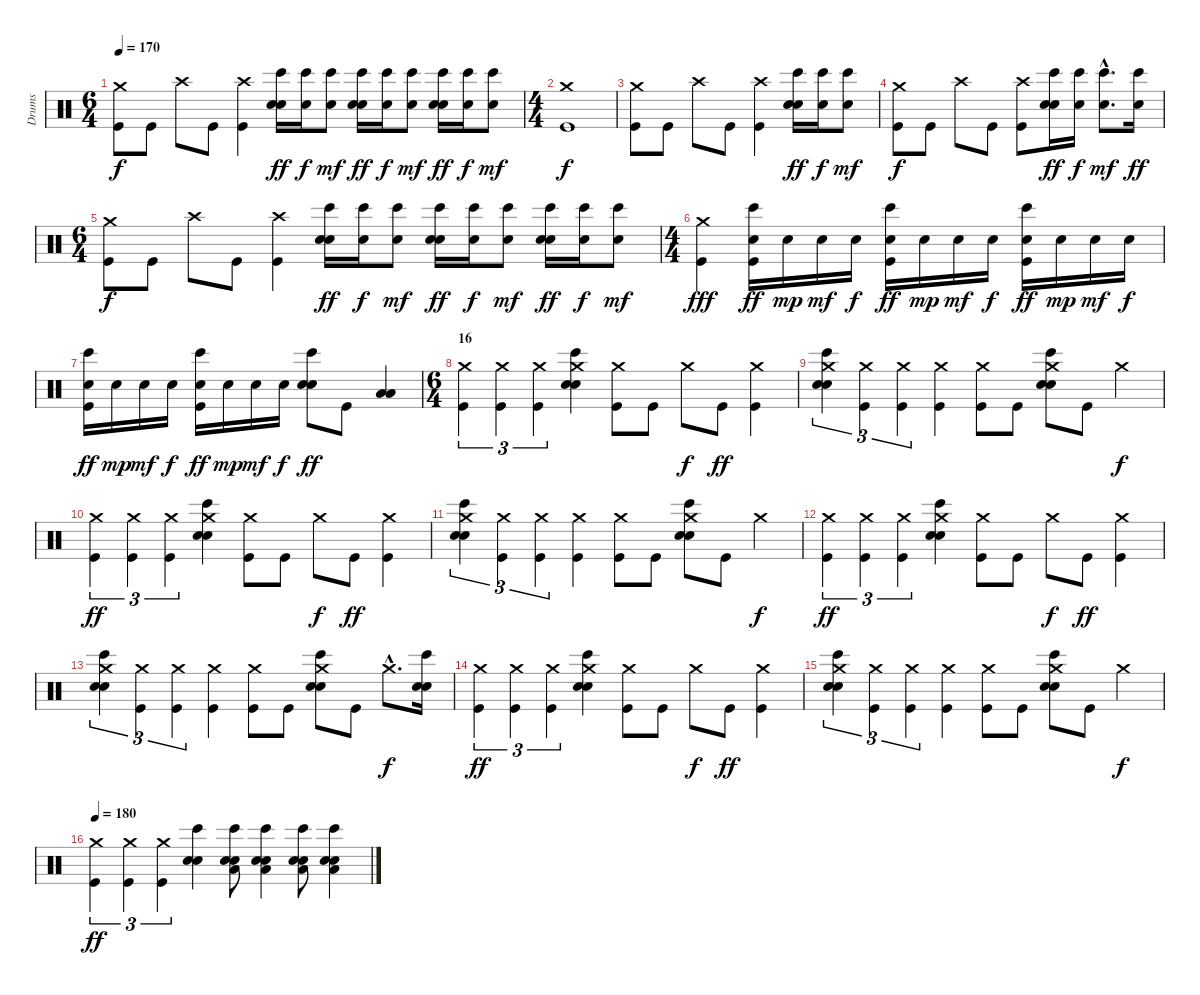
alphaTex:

\track ("Drums" "Drums") {instrument percussion}
\staff {score}
\articulation defaults
\ts (6 4)
\tempo 170
\clef neutral
\ks c
("Kick (hit)" "Crash medium (hit)").8{dy f} "Kick (hit)".8 "Crash high (hit)".8 "Kick (hit)".8 ("Kick (hit)" "Crash high (hit)").4 ("Electric Snare (hit)" "Electric Snare (hit)" "Bongo High (hit)").16{dy ff} ("Electric Snare (hit)" "Bongo High (hit)").16{dy f} ("Electric Snare (hit)" "Bongo High (hit)").8{dy mf} ("Electric Snare (hit)" "Electric Snare (hit)" "Bongo High (hit)").16{dy ff} ("Electric Snare (hit)" "Bongo High (hit)").16{dy f} ("Electric Snare (hit)" "Bongo High (hit)").8{dy mf} ("Electric Snare (hit)" "Electric Snare (hit)" "Bongo High (hit)").16{dy ff} ("Electric Snare (hit)" "Bongo High (hit)").16{dy f} ("Electric Snare (hit)" "Bongo High (hit)").8{dy mf} |
\ts (4 4)
("Kick (hit)" "Crash medium (hit)").1{dy f} |
("Kick (hit)" "Crash medium (hit)").8 "Kick (hit)".8 "Crash high (hit)".8 "Kick (hit)".8 ("Kick (hit)" "Crash high (hit)").4 ("Electric Snare (hit)" "Electric Snare (hit)" "Bongo High (hit)").16{dy ff} ("Electric Snare (hit)" "Bongo High (hit)").16{dy f} ("Electric Snare (hit)" "Bongo High (hit)").8{dy mf} |
("Kick (hit)" "Crash medium (hit)").8{dy f} "Kick (hit)".8 "Crash high (hit)".8 "Kick (hit)".8 ("Kick (hit)" "Crash high (hit)").8 ("Electric Snare (hit)" "Electric Snare (hit)" "Bongo High (hit)").16{dy ff} ("Electric Snare (hit)" "Bongo High (hit)").16{dy f} ("Electric Snare (hit)"{hac} "Bongo High (hit)"{hac}).8{d dy mf} ("Electric Snare (hit)" "Bongo High (hit)").16{dy ff} |
\ts (6 4)
("Kick (hit)" "Crash medium (hit)").8{dy f} "Kick (hit)".8 "Crash high (hit)".8 "Kick (hit)".8 ("Kick (hit)" "Crash high (hit)").4 ("Electric Snare (hit)" "Electric Snare (hit)" "Bongo High (hit)").16{dy ff} ("Electric Snare (hit)" "Bongo High (hit)").16{dy f} ("Electric Snare (hit)" "Bongo High (hit)").8{dy mf} ("Electric Snare (hit)" "Electric Snare (hit)" "Bongo High (hit)").16{dy ff} ("Electric Snare (hit)" "Bongo High (hit)").16{dy f} ("Electric Snare (hit)" "Bongo High (hit)").8{dy mf} ("Electric Snare (hit)" "Electric Snare (hit)" "Bongo High (hit)").16{dy ff} ("Electric Snare (hit)" "Bongo High (hit)").16{dy f} ("Electric Snare (hit)" "Bongo High (hit)").8{dy mf} |
\ts (4 4)
("Kick (hit)" "Crash medium (hit)").4{dy fff} ("Kick (hit)" "Electric Snare (hit)" "Bongo High (hit)").16{dy ff} "Electric Snare (hit)".16{dy mp} "Electric Snare (hit)".16{dy mf} "Electric Snare (hit)".16{dy f} ("Kick (hit)" "Electric Snare (hit)" "Bongo High (hit)").16{dy ff} "Electric Snare (hit)".16{dy mp} "Electric Snare (hit)".16{dy mf} "Electric Snare (hit)".16{dy f} ("Kick (hit)" "Electric Snare (hit)" "Bongo High (hit)").16{dy ff} "Electric Snare (hit)".16{dy mp} "Electric Snare (hit)".16{dy mf} "Electric Snare (hit)".16{dy f} |
("Kick (hit)" "Electric Snare (hit)" "Bongo High (hit)").16{dy ff} "Electric Snare (hit)".16{dy mp} "Electric Snare (hit)".16{dy mf} "Electric Snare (hit)".16{dy f} ("Kick (hit)" "Electric Snare (hit)" "Bongo High (hit)").16{dy ff} "Electric Snare (hit)".16{dy mp} "Electric Snare (hit)".16{dy mf} "Electric Snare (hit)".16{dy f} ("Electric Snare (hit)" "Electric Snare (hit)" "Bongo High (hit)").8{dy ff} "Kick (hit)".8 ("Low Floor Tom (hit)" "Low Floor Tom (hit)").4 |
\ts (6 4)
\section ("" "16")
("Kick (hit)" "Crash medium (hit)").4{tu (3 2)} ("Kick (hit)" "Crash medium (hit)").4{tu (3 2)} ("Kick (hit)" "Crash medium (hit)").4{tu (3 2)} ("Electric Snare (hit)" "Electric Snare (hit)" "Bongo High (hit)" "Crash medium (hit)").4 ("Kick (hit)" "Crash medium (hit)").8 "Kick (hit)".8 "Crash medium (hit)".8{dy f} "Kick (hit)".8{dy ff} ("Kick (hit)" "Crash medium (hit)").4 |
("Electric Snare (hit)" "Electric Snare (hit)" "Bongo High (hit)" "Crash medium (hit)").4{tu (3 2)} ("Kick (hit)" "Crash medium (hit)").4{tu (3 2)} ("Kick (hit)" "Crash medium (hit)").4{tu (3 2)} ("Kick (hit)" "Crash medium (hit)").4 ("Kick (hit)" "Crash medium (hit)").8 "Kick (hit)".8 ("Electric Snare (hit)" "Electric Snare (hit)" "Bongo High (hit)" "Crash medium (hit)").8 "Kick (hit)".8 "Crash medium (hit)".4{dy f} |
("Kick (hit)" "Crash medium (hit)").4{tu (3 2) dy ff} ("Kick (hit)" "Crash medium (hit)").4{tu (3 2)} ("Kick (hit)" "Crash medium (hit)").4{tu (3 2)} ("Electric Snare (hit)" "Electric Snare (hit)" "Bongo High (hit)" "Crash medium (hit)").4 ("Kick (hit)" "Crash medium (hit)").8 "Kick (hit)".8 "Crash medium (hit)".8{dy f} "Kick (hit)".8{dy ff} ("Kick (hit)" "Crash medium (hit)").4 |
("Electric Snare (hit)" "Electric Snare (hit)" "Bongo High (hit)" "Crash medium (hit)").4{tu (3 2)} ("Kick (hit)" "Crash medium (hit)").4{tu (3 2)} ("Kick (hit)" "Crash medium (hit)").4{tu (3 2)} ("Kick (hit)" "Crash medium (hit)").4 ("Kick (hit)" "Crash medium (hit)").8 "Kick (hit)".8 ("Electric Snare (hit)" "Electric Snare (hit)" "Bongo High (hit)" "Crash medium (hit)").8 "Kick (hit)".8 "Crash medium (hit)".4{dy f} |
("Kick (hit)" "Crash medium (hit)").4{tu (3 2) dy ff} ("Kick (hit)" "Crash medium (hit)").4{tu (3 2)} ("Kick (hit)" "Crash medium (hit)").4{tu (3 2)} ("Electric Snare (hit)" "Electric Snare (hit)" "Bongo High (hit)" "Crash medium (hit)").4 ("Kick (hit)" "Crash medium (hit)").8 "Kick (hit)".8 "Crash medium (hit)".8{dy f} "Kick (hit)".8{dy ff} ("Kick (hit)" "Crash medium (hit)").4 |
("Electric Snare (hit)" "Electric Snare (hit)" "Bongo High (hit)" "Crash medium (hit)").4{tu (3 2)} ("Kick (hit)" "Crash medium (hit)").4{tu (3 2)} ("Kick (hit)" "Crash medium (hit)").4{tu (3 2)} ("Kick (hit)" "Crash medium (hit)").4 ("Kick (hit)" "Crash medium (hit)").8 "Kick (hit)".8 ("Electric Snare (hit)" "Electric Snare (hit)" "Bongo High (hit)" "Crash medium (hit)").8 "Kick (hit)".8 "Crash medium (hit)"{hac}.8{d dy f} ("Electric Snare (hit)" "Electric Snare (hit)" "Bongo High (hit)").16 |
("Kick (hit)" "Crash medium (hit)").4{tu (3 2) dy ff} ("Kick (hit)" "Crash medium (hit)").4{tu (3 2)} ("Kick (hit)" "Crash medium (hit)").4{tu (3 2)} ("Electric Snare (hit)" "Electric Snare (hit)" "Bongo High (hit)" "Crash medium (hit)").4 ("Kick (hit)" "Crash medium (hit)").8 "Kick (hit)".8 "Crash medium (hit)".8{dy f} "Kick (hit)".8{dy ff} ("Kick (hit)" "Crash medium (hit)").4 |
("Electric Snare (hit)" "Electric Snare (hit)" "Bongo High (hit)" "Crash medium (hit)").4{tu (3 2)} ("Kick (hit)" "Crash medium (hit)").4{tu (3 2)} ("Kick (hit)" "Crash medium (hit)").4{tu (3 2)} ("Kick (hit)" "Crash medium (hit)").4 ("Kick (hit)" "Crash medium (hit)").8 "Kick (hit)".8 ("Electric Snare (hit)" "Electric Snare (hit)" "Bongo High (hit)" "Crash medium (hit)").8 "Kick (hit)".8 "Crash medium (hit)".4{dy f} |
\tempo 180
("Kick (hit)" "Crash medium (hit)").4{tu (3 2) dy ff} ("Kick (hit)" "Crash medium (hit)").4{tu (3 2)} ("Kick (hit)" "Crash medium (hit)").4{tu (3 2)} ("Electric Snare (hit)" "Electric Snare (hit)" "Bongo High (hit)").4 ("Electric Snare (hit)" "Electric Snare (hit)" "Bongo High (hit)" "Low Floor Tom (hit)").8 ("Electric Snare (hit)" "Electric Snare (hit)" "Bongo High (hit)" "Low Floor Tom (hit)").4 ("Electric Snare (hit)" "Electric Snare (hit)" "Bongo High (hit)" "Low Floor Tom (hit)").8 ("Electric Snare (hit)" "Electric Snare (hit)" "Bongo High (hit)" "Low Floor Tom (hit)").4
